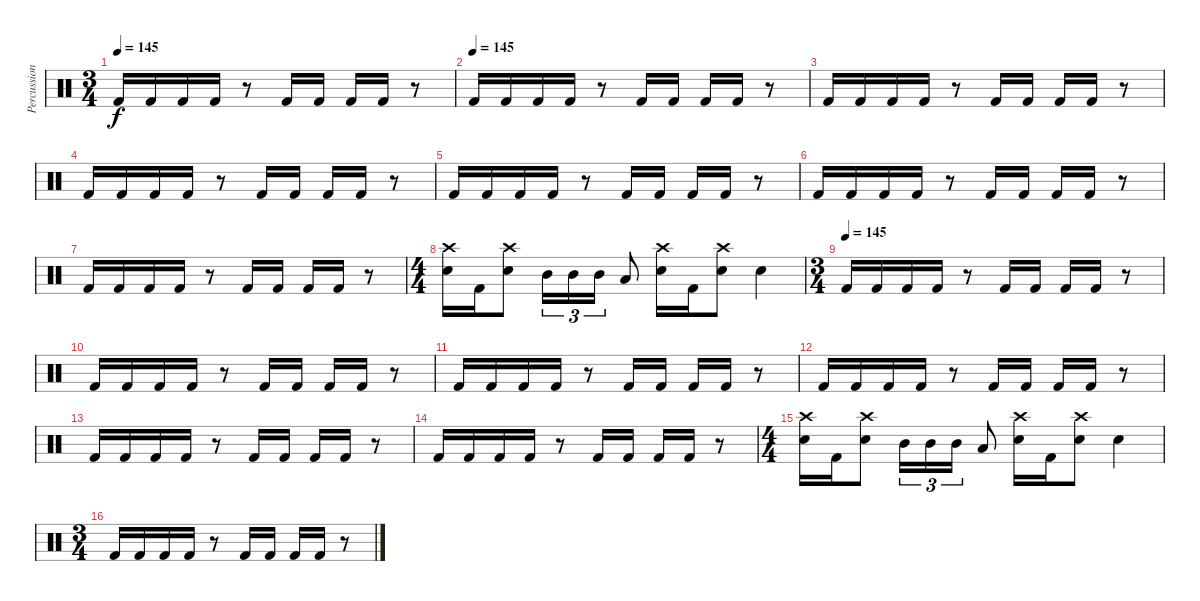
\track ("Percussion" "Percussion") {instrument percussion}
\staff {score}
\articulation defaults
\ts (3 4)
\tempo 145
\clef neutral
\ks c "Kick (hit) 2".16{dy f} "Kick (hit) 2".16 "Kick (hit) 2".16 "Kick (hit) 2".16
r.8 "Kick (hit) 2".16 "Kick (hit) 2".16 "Kick (hit) 2".16 "Kick (hit) 2".16 r.8 |
\tempo (145)
"Kick (hit) 2".16 "Kick (hit) 2".16 "Kick (hit) 2".16 "Kick (hit) 2".16 r.8 "Kick (hit) 2".16 "Kick (hit) 2".16 "Kick (hit) 2".16 "Kick (hit) 2".16 r.8 |
"Kick (hit) 2".16 "Kick (hit) 2".16 "Kick (hit) 2".16 "Kick (hit) 2".16 r.8 "Kick (hit) 2".16 "Kick (hit) 2".16 "Kick (hit) 2".16 "Kick (hit) 2".16 r.8 |
"Kick (hit) 2".16 "Kick (hit) 2".16 "Kick (hit) 2".16 "Kick (hit) 2".16 r.8 "Kick (hit) 2".16 "Kick (hit) 2".16 "Kick (hit) 2".16 "Kick (hit) 2".16 r.8 |
"Kick (hit) 2".16 "Kick (hit) 2".16 "Kick (hit) 2".16 "Kick (hit) 2".16 r.8 "Kick (hit) 2".16 "Kick (hit) 2".16 "Kick (hit) 2".16 "Kick (hit) 2".16 r.8 |
"Kick (hit) 2".16 "Kick (hit) 2".16 "Kick (hit) 2".16 "Kick (hit) 2".16 r.8 "Kick (hit) 2".16 "Kick (hit) 2".16 "Kick (hit) 2".16 "Kick (hit) 2".16 r.8 |
"Kick (hit) 2".16 "Kick (hit) 2".16 "Kick (hit) 2".16 "Kick (hit) 2".16 r.8 "Kick (hit) 2".16 "Kick (hit) 2".16 "Kick (hit) 2".16 "Kick (hit) 2".16 r.8 |
\ts (4 4)
("Crash high (hit)" "Electric Snare (hit)").16 "Kick (hit) 2".16 ("Crash high (hit)" "Electric Snare (hit)").8 "Mid Tom (hit)".16{tu (3 2)} "Mid Tom (hit)".16{tu (3 2)} "Mid Tom (hit)".16{tu (3 2)} "Low Tom (hit)".8 ("Crash high (hit)" "Electric Snare (hit)").16 "Kick (hit) 2".16 ("Crash high (hit)" "Electric Snare (hit)").8 "Electric Snare (hit)".4 |
\ts (3 4)
\tempo (145)
"Kick (hit) 2".16 "Kick (hit) 2".16 "Kick (hit) 2".16 "Kick (hit) 2".16 r.8 "Kick (hit) 2".16 "Kick (hit) 2".16 "Kick (hit) 2".16 "Kick (hit) 2".16 r.8 |
"Kick (hit) 2".16 "Kick (hit) 2".16 "Kick (hit) 2".16 "Kick (hit) 2".16 r.8 "Kick (hit) 2".16 "Kick (hit) 2".16 "Kick (hit) 2".16 "Kick (hit) 2".16 r.8 |
"Kick (hit) 2".16 "Kick (hit) 2".16 "Kick (hit) 2".16 "Kick (hit) 2".16 r.8 "Kick (hit) 2".16 "Kick (hit) 2".16 "Kick (hit) 2".16 "Kick (hit) 2".16 r.8 |
"Kick (hit) 2".16 "Kick (hit) 2".16 "Kick (hit) 2".16 "Kick (hit) 2".16 r.8 "Kick (hit) 2".16 "Kick (hit) 2".16 "Kick (hit) 2".16 "Kick (hit) 2".16 r.8 |
"Kick (hit) 2".16 "Kick (hit) 2".16 "Kick (hit) 2".16 "Kick (hit) 2".16 r.8 "Kick (hit) 2".16 "Kick (hit) 2".16 "Kick (hit) 2".16 "Kick (hit) 2".16 r.8 |
"Kick (hit) 2".16 "Kick (hit) 2".16 "Kick (hit) 2".16 "Kick (hit) 2".16 r.8 "Kick (hit) 2".16 "Kick (hit) 2".16 "Kick (hit) 2".16 "Kick (hit) 2".16 r.8 |
\ts (4 4)
("Crash high (hit)" "Electric Snare (hit)").16 "Kick (hit) 2".16 ("Crash high (hit)" "Electric Snare (hit)").8 "Mid Tom (hit)".16{tu (3 2)} "Mid Tom (hit)".16{tu (3 2)} "Mid Tom (hit)".16{tu (3 2)} "Low Tom (hit)".8 ("Crash high (hit)" "Electric Snare (hit)").16 "Kick (hit) 2".16 ("Crash high (hit)" "Electric Snare (hit)").8 "Electric Snare (hit)".4 |
\ts (3 4)
"Kick (hit) 2".16 "Kick (hit) 2".16 "Kick (hit) 2".16 "Kick (hit) 2".16 r.8 "Kick (hit) 2".16 "Kick (hit) 2".16 "Kick (hit) 2".16 "Kick (hit) 2".16 r.8
